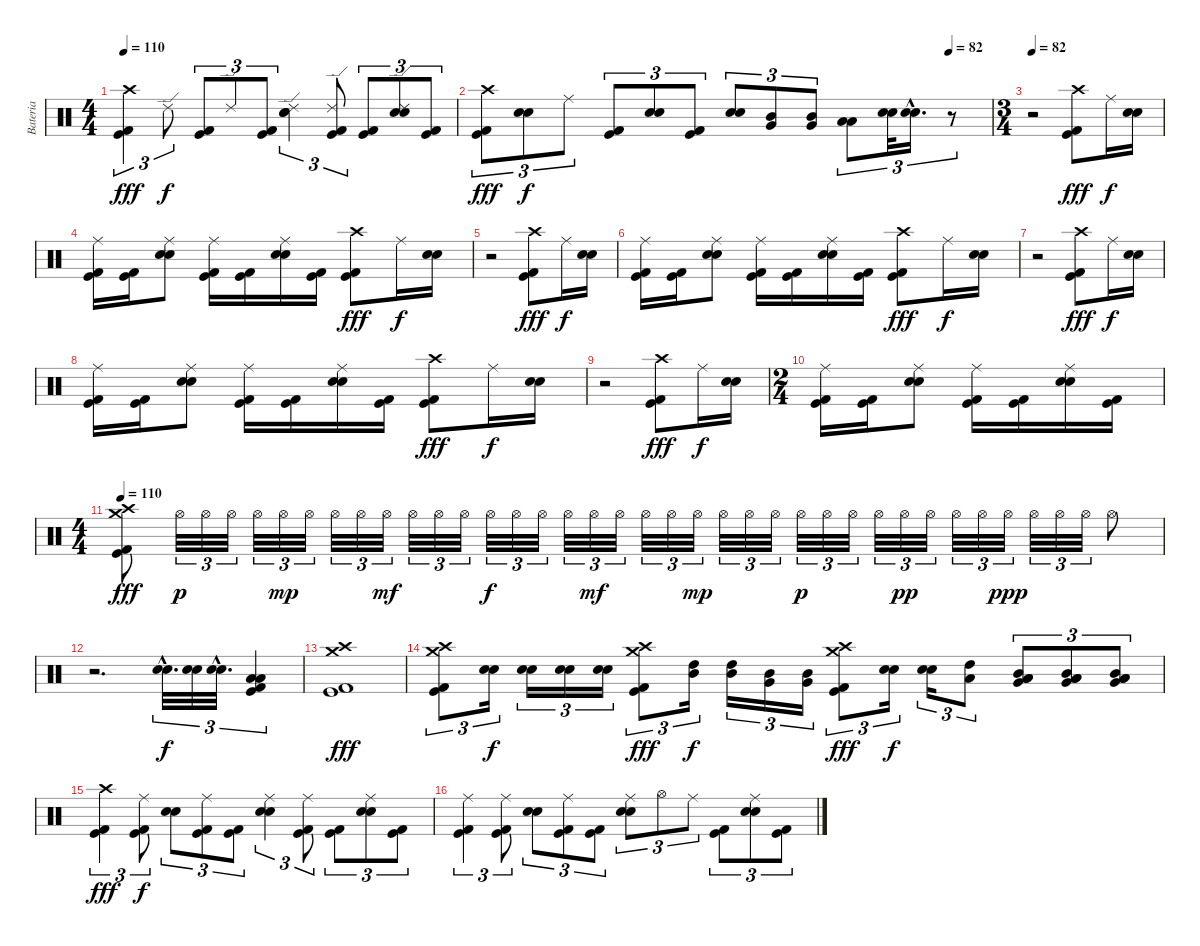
\track ("Bateria" "Bateria") {instrument percussion}
\staff {score}
\articulation defaults
\ts (4 4)
\tempo 110
\clef neutral
\ks c
("Crash high (hit)" "Kick (hit) 2" "Kick (hit)").4{tu (3 2) dy fff} "Ride (edge) 2".8{tu (3 2) dy f} ("Kick (hit) 2" "Kick (hit)").8{tu (3 2)} "Ride (edge) 2".8{tu (3 2)} ("Kick (hit) 2" "Kick (hit)").8{tu (3 2)} ("Ride (edge) 2" "Electric Snare (hit)" "Snare (hit) 2").4{tu (3 2)} ("Ride (edge) 2" "Kick (hit) 2" "Kick (hit)").8{tu (3 2)} ("Kick (hit) 2" "Kick (hit)").8{tu (3 2)} ("Ride (edge) 2" "Electric Snare (hit)" "Snare (hit) 2").8{tu (3 2)} ("Kick (hit) 2" "Kick (hit)").8{tu (3 2)} |
\tempo (82 0.9166666666666666)
("Crash high (hit)" "Kick (hit) 2" "Kick (hit)").8{tu (3 2) dy fff} ("Electric Snare (hit)" "Snare (hit) 2").8{tu (3 2) dy f} "Ride (middle)".8{tu (3 2)} ("Kick (hit) 2" "Kick (hit)").8{tu (3 2)} ("Electric Snare (hit)" "Snare (hit) 2").8{tu (3 2)} ("Kick (hit) 2" "Kick (hit)").8{tu (3 2)} ("Electric Snare (hit)" "Snare (hit) 2").8{tu (3 2)} ("Mid Tom (hit)" "Very Low Tom (hit)").8{tu (3 2)} ("Mid Tom (hit)" "Very Low Tom (hit)").8{tu (3 2)} ("Low Tom (hit)" "Low Floor Tom (hit)").8{tu (3 2)} ("Electric Snare (hit)" "Snare (hit) 2").32{tu (3 2)} ("Electric Snare (hit)"{hac} "Snare (hit) 2"{hac}).16{d tu (3 2)} r.8{tu (3 2)} |
\ts (3 4)
\tempo 82
r.2 ("Crash high (hit)" "Kick (hit) 2" "Kick (hit)").8{dy fff} "Ride (middle)".16{dy f} ("Electric Snare (hit)" "Snare (hit) 2").16 |
("Ride (middle)" "Kick (hit) 2" "Kick (hit)").16 ("Kick (hit) 2" "Kick (hit)").16 ("Ride (middle)" "Electric Snare (hit)" "Snare (hit) 2").8 ("Ride (middle)" "Kick (hit) 2" "Kick (hit)").16 ("Kick (hit) 2" "Kick (hit)").16 ("Ride (middle)" "Electric Snare (hit)" "Snare (hit) 2").16 ("Kick (hit) 2" "Kick (hit)").16 ("Crash high (hit)" "Kick (hit) 2" "Kick (hit)").8{dy fff} "Ride (middle)".16{dy f} ("Electric Snare (hit)" "Snare (hit) 2").16 |
r.2 ("Crash high (hit)" "Kick (hit) 2" "Kick (hit)").8{dy fff} "Ride (middle)".16{dy f} ("Electric Snare (hit)" "Snare (hit) 2").16 |
("Ride (middle)" "Kick (hit) 2" "Kick (hit)").16 ("Kick (hit) 2" "Kick (hit)").16 ("Ride (middle)" "Electric Snare (hit)" "Snare (hit) 2").8 ("Ride (middle)" "Kick (hit) 2" "Kick (hit)").16 ("Kick (hit) 2" "Kick (hit)").16 ("Ride (middle)" "Electric Snare (hit)" "Snare (hit) 2").16 ("Kick (hit) 2" "Kick (hit)").16 ("Crash high (hit)" "Kick (hit) 2" "Kick (hit)").8{dy fff} "Ride (middle)".16{dy f} ("Electric Snare (hit)" "Snare (hit) 2").16 |
r.2 ("Crash high (hit)" "Kick (hit) 2" "Kick (hit)").8{dy fff} "Ride (middle)".16{dy f} ("Electric Snare (hit)" "Snare (hit) 2").16 |
("Ride (middle)" "Kick (hit) 2" "Kick (hit)").16 ("Kick (hit) 2" "Kick (hit)").16 ("Ride (middle)" "Electric Snare (hit)" "Snare (hit) 2").8 ("Ride (middle)" "Kick (hit) 2" "Kick (hit)").16 ("Kick (hit) 2" "Kick (hit)").16 ("Ride (middle)" "Electric Snare (hit)" "Snare (hit) 2").16 ("Kick (hit) 2" "Kick (hit)").16 ("Crash high (hit)" "Kick (hit) 2" "Kick (hit)").8{dy fff} "Ride (middle)".16{dy f} ("Electric Snare (hit)" "Snare (hit) 2").16 |
r.2 ("Crash high (hit)" "Kick (hit) 2" "Kick (hit)").8{dy fff} "Ride (middle)".16{dy f} ("Electric Snare (hit)" "Snare (hit) 2").16 |
\ts (2 4)
("Ride (middle)" "Kick (hit) 2" "Kick (hit)").16 ("Kick (hit) 2" "Kick (hit)").16 ("Ride (middle)" "Electric Snare (hit)" "Snare (hit) 2").8 ("Ride (middle)" "Kick (hit) 2" "Kick (hit)").16 ("Kick (hit) 2" "Kick (hit)").16 ("Ride (middle)" "Electric Snare (hit)" "Snare (hit) 2").16 ("Kick (hit) 2" "Kick (hit)").16 |
\ts (4 4)
\tempo 110
("Crash high (hit)" "Crash medium (hit)" "Kick (hit) 2" "Kick (hit)").8{dy fff} "Hi-Hat (open)".32{tu (3 2) dy p} "Hi-Hat (open)".32{tu (3 2)} "Hi-Hat (open)".32{tu (3 2)} "Hi-Hat (open)".32{tu (3 2)} "Hi-Hat (open)".32{tu (3 2) dy mp} "Hi-Hat (open)".32{tu (3 2)} "Hi-Hat (open)".32{tu (3 2)} "Hi-Hat (open)".32{tu (3 2)} "Hi-Hat (open)".32{tu (3 2) dy mf} "Hi-Hat (open)".32{tu (3 2)} "Hi-Hat (open)".32{tu (3 2)} "Hi-Hat (open)".32{tu (3 2)} "Hi-Hat (open)".32{tu (3 2) dy f} "Hi-Hat (open)".32{tu (3 2)} "Hi-Hat (open)".32{tu (3 2)} "Hi-Hat (open)".32{tu (3 2)} "Hi-Hat (open)".32{tu (3 2) dy mf} "Hi-Hat (open)".32{tu (3 2)} "Hi-Hat (open)".32{tu (3 2)} "Hi-Hat (open)".32{tu (3 2)} "Hi-Hat (open)".32{tu (3 2) dy mp} "Hi-Hat (open)".32{tu (3 2)} "Hi-Hat (open)".32{tu (3 2)} "Hi-Hat (open)".32{tu (3 2)} "Hi-Hat (open)".32{tu (3 2) dy p} "Hi-Hat (open)".32{tu (3 2)} "Hi-Hat (open)".32{tu (3 2)} "Hi-Hat (open)".32{tu (3 2)} "Hi-Hat (open)".32{tu (3 2) dy pp} "Hi-Hat (open)".32{tu (3 2)} "Hi-Hat (open)".32{tu (3 2)} "Hi-Hat (open)".32{tu (3 2)} "Hi-Hat (open)".32{tu (3 2) dy ppp} "Hi-Hat (open)".32{tu (3 2)} "Hi-Hat (open)".32{tu (3 2)} "Hi-Hat (open)".32{tu (3 2)} "Hi-Hat (open)".8 |
r.2{d} ("Electric Snare (hit)"{hac} "Snare (hit) 2"{hac}).32{d tu (3 2) dy f} ("Electric Snare (hit)" "Snare (hit) 2").32{tu (3 2)} ("Electric Snare (hit)"{hac} "Snare (hit) 2"{hac}).32{d tu (3 2)} ("Low Tom (hit)" "Low Floor Tom (hit)" "Kick (hit) 2" "Kick (hit)").4{tu (3 2)} |
("Crash high (hit)" "Crash medium (hit)" "Kick (hit) 2" "Kick (hit)").1{dy fff} |
("Crash high (hit)" "Crash medium (hit)" "Kick (hit) 2" "Kick (hit)").8{tu (3 2)} ("Electric Snare (hit)" "Snare (hit) 2").16{tu (3 2) dy f} ("Electric Snare (hit)" "Snare (hit) 2").16{tu (3 2)} ("Electric Snare (hit)" "Snare (hit) 2").16{tu (3 2)} ("Electric Snare (hit)" "Snare (hit) 2").16{tu (3 2)} ("Crash high (hit)" "Crash medium (hit)" "Kick (hit) 2" "Kick (hit)").8{tu (3 2) dy fff} ("High Tom (hit)" "Mid Tom (hit)").16{tu (3 2) dy f} ("High Tom (hit)" "Mid Tom (hit)").16{tu (3 2)} ("Mid Tom (hit)" "Very Low Tom (hit)").16{tu (3 2)} ("Mid Tom (hit)" "Very Low Tom (hit)").16{tu (3 2)} ("Crash high (hit)" "Crash medium (hit)" "Kick (hit) 2" "Kick (hit)").8{tu (3 2) dy fff} ("Electric Snare (hit)" "Snare (hit) 2").16{tu (3 2) dy f} ("Electric Snare (hit)" "Snare (hit) 2").16{tu (3 2)} ("High Tom (hit)" "Low Tom (hit)").8{tu (3 2)} ("Mid Tom (hit)" "Very Low Tom (hit)" "Low Tom (hit)" "Low Floor Tom (hit)").8{tu (3 2)} ("Mid Tom (hit)" "Very Low Tom (hit)" "Low Tom (hit)" "Low Floor Tom (hit)").8{tu (3 2)} ("Mid Tom (hit)" "Very Low Tom (hit)" "Low Tom (hit)" "Low Floor Tom (hit)").8{tu (3 2)} |
("Crash high (hit)" "Kick (hit) 2" "Kick (hit)").4{tu (3 2) dy fff} ("Ride (middle)" "Kick (hit) 2" "Kick (hit)").8{tu (3 2) dy f} ("Electric Snare (hit)" "Snare (hit) 2").8{tu (3 2)} ("Ride (middle)" "Kick (hit) 2" "Kick (hit)").8{tu (3 2)} ("Kick (hit) 2" "Kick (hit)").8{tu (3 2)} ("Ride (middle)" "Electric Snare (hit)" "Snare (hit) 2").4{tu (3 2)} ("Ride (middle)" "Kick (hit) 2" "Kick (hit)").8{tu (3 2)} ("Kick (hit) 2" "Kick (hit)").8{tu (3 2)} ("Ride (middle)" "Electric Snare (hit)" "Snare (hit) 2").8{tu (3 2)} ("Kick (hit) 2" "Kick (hit)").8{tu (3 2)} |
("Ride (middle)" "Kick (hit) 2" "Kick (hit)").4{tu (3 2)} ("Ride (middle)" "Kick (hit) 2" "Kick (hit)").8{tu (3 2)} ("Electric Snare (hit)" "Snare (hit) 2").8{tu (3 2)} ("Ride (middle)" "Kick (hit) 2" "Kick (hit)").8{tu (3 2)} ("Kick (hit) 2" "Kick (hit)").8{tu (3 2)} ("Ride (middle)" "Electric Snare (hit)" "Snare (hit) 2").8{tu (3 2)} "Hi-Hat (open)".8{tu (3 2)} "Ride (middle)".8{tu (3 2)} ("Kick (hit) 2" "Kick (hit)").8{tu (3 2)} ("Ride (middle)" "Electric Snare (hit)" "Snare (hit) 2").8{tu (3 2)} ("Kick (hit) 2" "Kick (hit)").8{tu (3 2)}
